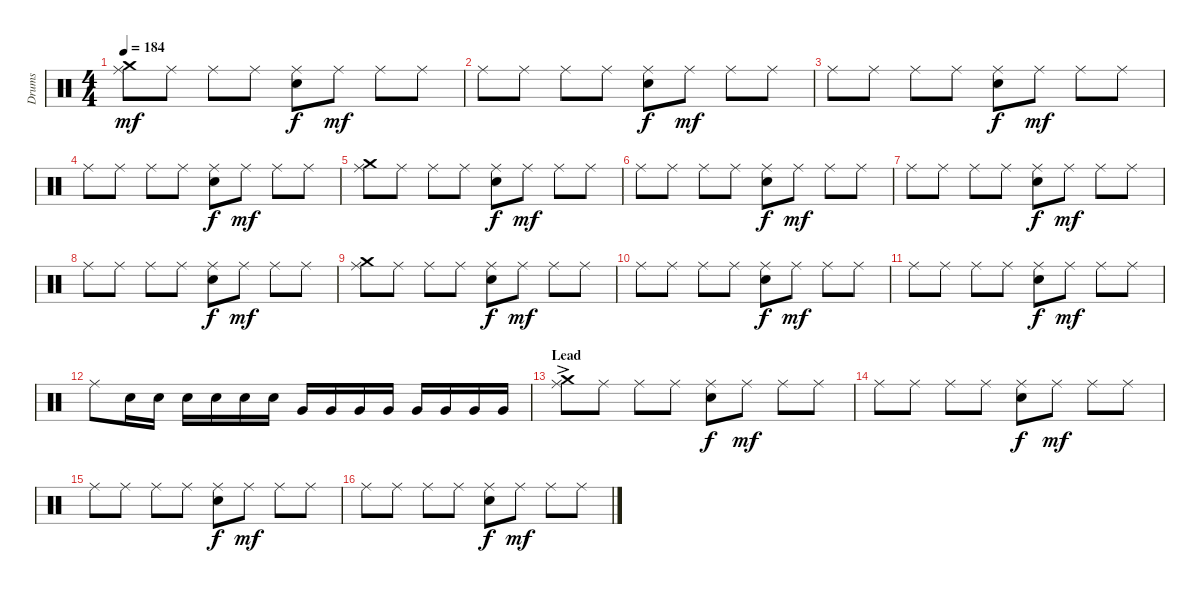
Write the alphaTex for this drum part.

\track ("Drums" "Drums") {instrument percussion}
\staff {score}
\articulation defaults
\ts (4 4)
\tempo 184
\clef neutral
\ks c
("Crash medium (hit)" "Ride (middle)").8{dy mf} "Ride (middle)".8 "Ride (middle)".8 "Ride (middle)".8 ("Ride (middle)" "Electric Snare (hit)").8{dy f} "Ride (middle)".8{dy mf} "Ride (middle)".8 "Ride (middle)".8 |
"Ride (middle)".8 "Ride (middle)".8 "Ride (middle)".8 "Ride (middle)".8 ("Ride (middle)" "Electric Snare (hit)").8{dy f} "Ride (middle)".8{dy mf} "Ride (middle)".8 "Ride (middle)".8 |
"Ride (middle)".8 "Ride (middle)".8 "Ride (middle)".8 "Ride (middle)".8 ("Ride (middle)" "Electric Snare (hit)").8{dy f} "Ride (middle)".8{dy mf} "Ride (middle)".8 "Ride (middle)".8 |
"Ride (middle)".8 "Ride (middle)".8 "Ride (middle)".8 "Ride (middle)".8 ("Ride (middle)" "Electric Snare (hit)").8{dy f} "Ride (middle)".8{dy mf} "Ride (middle)".8 "Ride (middle)".8 |
("Crash medium (hit)" "Ride (middle)").8 "Ride (middle)".8 "Ride (middle)".8 "Ride (middle)".8 ("Ride (middle)" "Electric Snare (hit)").8{dy f} "Ride (middle)".8{dy mf} "Ride (middle)".8 "Ride (middle)".8 |
"Ride (middle)".8 "Ride (middle)".8 "Ride (middle)".8 "Ride (middle)".8 ("Ride (middle)" "Electric Snare (hit)").8{dy f} "Ride (middle)".8{dy mf} "Ride (middle)".8 "Ride (middle)".8 |
"Ride (middle)".8 "Ride (middle)".8 "Ride (middle)".8 "Ride (middle)".8 ("Ride (middle)" "Electric Snare (hit)").8{dy f} "Ride (middle)".8{dy mf} "Ride (middle)".8 "Ride (middle)".8 |
"Ride (middle)".8 "Ride (middle)".8 "Ride (middle)".8 "Ride (middle)".8 ("Ride (middle)" "Electric Snare (hit)").8{dy f} "Ride (middle)".8{dy mf} "Ride (middle)".8 "Ride (middle)".8 |
("Crash medium (hit)" "Ride (middle)").8 "Ride (middle)".8 "Ride (middle)".8 "Ride (middle)".8 ("Ride (middle)" "Electric Snare (hit)").8{dy f} "Ride (middle)".8{dy mf} "Ride (middle)".8 "Ride (middle)".8 |
"Ride (middle)".8 "Ride (middle)".8 "Ride (middle)".8 "Ride (middle)".8 ("Ride (middle)" "Electric Snare (hit)").8{dy f} "Ride (middle)".8{dy mf} "Ride (middle)".8 "Ride (middle)".8 |
"Ride (middle)".8 "Ride (middle)".8 "Ride (middle)".8 "Ride (middle)".8 ("Ride (middle)" "Electric Snare (hit)").8{dy f} "Ride (middle)".8{dy mf} "Ride (middle)".8 "Ride (middle)".8 |
"Ride (middle)".8 "Electric Snare (hit)".16 "Electric Snare (hit)".16 "Electric Snare (hit)".16 "Electric Snare (hit)".16 "Electric Snare (hit)".16 "Electric Snare (hit)".16 "Very Low Tom (hit)".16 "Very Low Tom (hit)".16 "Very Low Tom (hit)".16 "Very Low Tom (hit)".16 "Very Low Tom (hit)".16 "Very Low Tom (hit)".16 "Very Low Tom (hit)".16 "Very Low Tom (hit)".16 |
\section ("" "Lead")
("Crash medium (hit)"{ac} "Ride (middle)").8 "Ride (middle)".8 "Ride (middle)".8 "Ride (middle)".8 ("Ride (middle)" "Electric Snare (hit)").8{dy f} "Ride (middle)".8{dy mf} "Ride (middle)".8 "Ride (middle)".8 |
"Ride (middle)".8 "Ride (middle)".8 "Ride (middle)".8 "Ride (middle)".8 ("Ride (middle)" "Electric Snare (hit)").8{dy f} "Ride (middle)".8{dy mf} "Ride (middle)".8 "Ride (middle)".8 |
"Ride (middle)".8 "Ride (middle)".8 "Ride (middle)".8 "Ride (middle)".8 ("Ride (middle)" "Electric Snare (hit)").8{dy f} "Ride (middle)".8{dy mf} "Ride (middle)".8 "Ride (middle)".8 |
"Ride (middle)".8 "Ride (middle)".8 "Ride (middle)".8 "Ride (middle)".8 ("Ride (middle)" "Electric Snare (hit)").8{dy f} "Ride (middle)".8{dy mf} "Ride (middle)".8 "Ride (middle)".8
